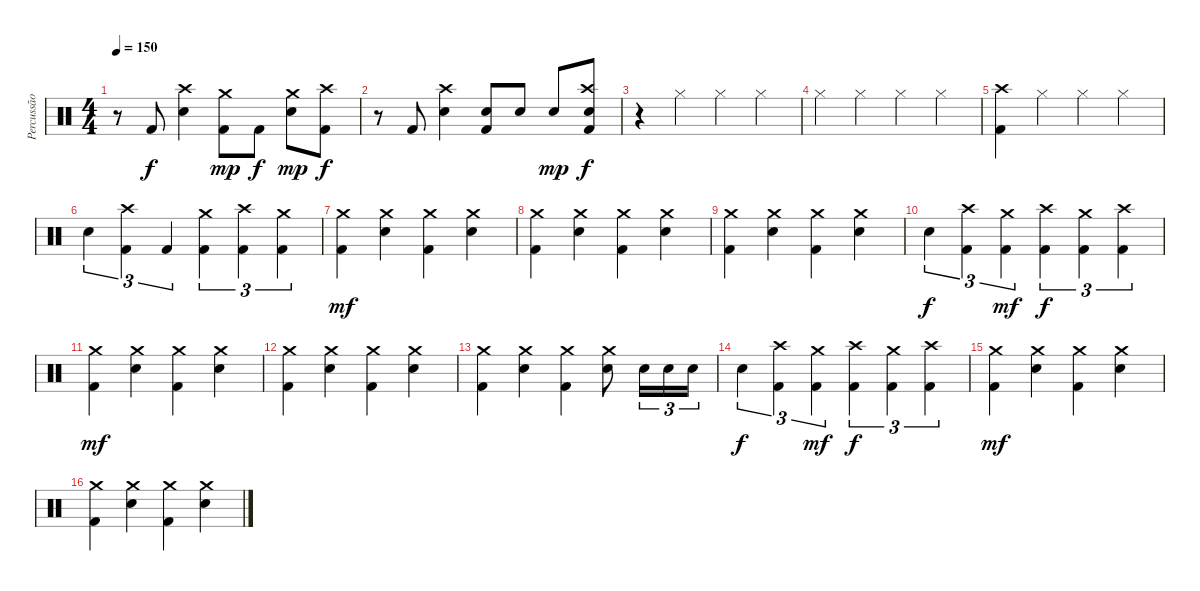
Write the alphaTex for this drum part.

\track ("Percussão" "Percussão") {instrument percussion}
\staff {score}
\articulation defaults
\ts (4 4)
\tempo 150
\clef neutral
\ks c
r.8{dy f} "Kick (hit) 2".8 ("Crash high (hit)" "Snare (hit) 2").4 ("Crash medium (hit)" "Kick (hit) 2").8{dy mp} "Kick (hit) 2".8{dy f} ("Crash medium (hit)" "Snare (hit) 2").8{dy mp} ("Crash high (hit)" "Kick (hit) 2").8{dy f} |
r.8 "Kick (hit) 2".8 ("Crash high (hit)" "Snare (hit) 2").4 ("Snare (hit) 2" "Kick (hit) 2").8 "Snare (hit) 2".8 "Snare (hit) 2".8{dy mp} ("Crash high (hit)" "Snare (hit) 2" "Kick (hit) 2").8{dy f} |
r.4 "Hi-Hat (closed)".4 "Hi-Hat (closed)".4 "Hi-Hat (closed)".4 |
"Hi-Hat (closed)".4 "Hi-Hat (closed)".4 "Hi-Hat (closed)".4 "Hi-Hat (closed)".4 |
("Crash high (hit)" "Kick (hit) 2").4 "Hi-Hat (closed)".4 "Hi-Hat (closed)".4 "Hi-Hat (closed)".4 |
"Electric Snare (hit)".4{tu (3 2)} ("Crash high (hit)" "Kick (hit) 2").4{tu (3 2)} "Kick (hit) 2".4{tu (3 2)} ("Crash medium (hit)" "Kick (hit) 2").4{tu (3 2)} ("Crash high (hit)" "Kick (hit) 2").4{tu (3 2)} ("Crash medium (hit)" "Kick (hit) 2").4{tu (3 2)} |
("Crash medium (hit)" "Kick (hit) 2").4{dy mf} ("Crash medium (hit)" "Snare (hit) 2").4 ("Crash medium (hit)" "Kick (hit) 2").4 ("Crash medium (hit)" "Snare (hit) 2").4 |
("Crash medium (hit)" "Kick (hit) 2").4 ("Crash medium (hit)" "Snare (hit) 2").4 ("Crash medium (hit)" "Kick (hit) 2").4 ("Crash medium (hit)" "Snare (hit) 2").4 |
("Crash medium (hit)" "Kick (hit) 2").4 ("Crash medium (hit)" "Snare (hit) 2").4 ("Crash medium (hit)" "Kick (hit) 2").4 ("Crash medium (hit)" "Snare (hit) 2").4 |
"Electric Snare (hit)".4{tu (3 2) dy f} ("Crash high (hit)" "Kick (hit) 2").4{tu (3 2)} ("Crash medium (hit)" "Kick (hit) 2").4{tu (3 2) dy mf} ("Crash high (hit)" "Kick (hit) 2").4{tu (3 2) dy f} ("Crash medium (hit)" "Kick (hit) 2").4{tu (3 2)} ("Crash high (hit)" "Kick (hit) 2").4{tu (3 2)} |
("Crash medium (hit)" "Kick (hit) 2").4{dy mf} ("Crash medium (hit)" "Snare (hit) 2").4 ("Crash medium (hit)" "Kick (hit) 2").4 ("Crash medium (hit)" "Snare (hit) 2").4 |
("Crash medium (hit)" "Kick (hit) 2").4 ("Crash medium (hit)" "Snare (hit) 2").4 ("Crash medium (hit)" "Kick (hit) 2").4 ("Crash medium (hit)" "Snare (hit) 2").4 |
("Crash medium (hit)" "Kick (hit) 2").4 ("Crash medium (hit)" "Snare (hit) 2").4 ("Crash medium (hit)" "Kick (hit) 2").4 ("Crash medium (hit)" "Snare (hit) 2").8 "Snare (hit) 2".16{tu (3 2)} "Snare (hit) 2".16{tu (3 2)} "Snare (hit) 2".16{tu (3 2)} |
"Electric Snare (hit)".4{tu (3 2) dy f} ("Crash high (hit)" "Kick (hit) 2").4{tu (3 2)} ("Crash medium (hit)" "Kick (hit) 2").4{tu (3 2) dy mf} ("Crash high (hit)" "Kick (hit) 2").4{tu (3 2) dy f} ("Crash medium (hit)" "Kick (hit) 2").4{tu (3 2)} ("Crash high (hit)" "Kick (hit) 2").4{tu (3 2)} |
("Crash medium (hit)" "Kick (hit) 2").4{dy mf} ("Crash medium (hit)" "Snare (hit) 2").4 ("Crash medium (hit)" "Kick (hit) 2").4 ("Crash medium (hit)" "Snare (hit) 2").4 |
("Crash medium (hit)" "Kick (hit) 2").4 ("Crash medium (hit)" "Snare (hit) 2").4 ("Crash medium (hit)" "Kick (hit) 2").4 ("Crash medium (hit)" "Snare (hit) 2").4
